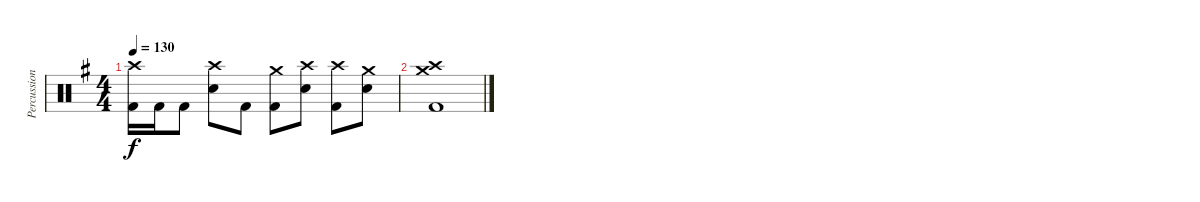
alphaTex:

\track ("Percussions" "Percussion") {instrument percussion}
\staff {score}
\articulation defaults
\ts (4 4)
\tempo 130
\clef neutral
\ks eminor
("Crash high (hit)" "Kick (hit) 2").16{dy f} "Kick (hit) 2".16 "Kick (hit) 2".8 ("Crash high (hit)" "Electric Snare (hit)").8 "Kick (hit) 2".8 ("Crash medium (hit)" "Kick (hit) 2").8 ("Crash high (hit)" "Electric Snare (hit)").8 ("Crash high (hit)" "Kick (hit) 2").8 ("Crash medium (hit)" "Electric Snare (hit)").8 |
("Crash medium (hit)" "Crash high (hit)" "Kick (hit) 2").1
